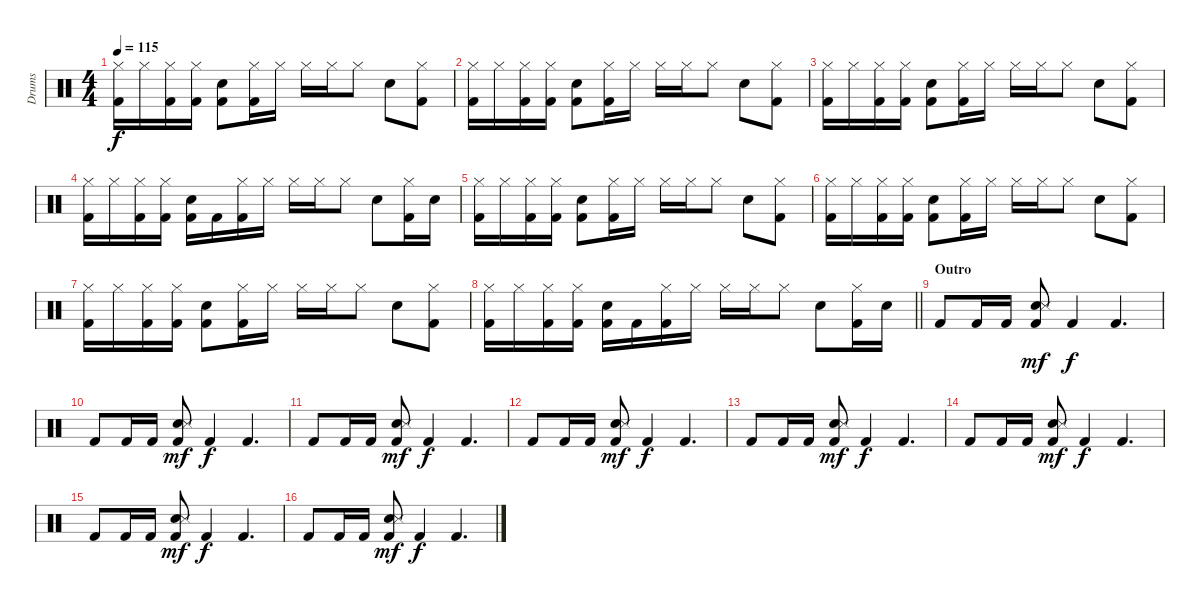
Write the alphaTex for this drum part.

\track ("Drums" "Drums") {instrument percussion}
\staff {score}
\articulation defaults
\ts (4 4)
\tempo 115
\clef neutral
\ks c
("Hi-Hat (closed)" "Kick (hit) 2").16{dy f} "Hi-Hat (closed)".16 ("Hi-Hat (closed)" "Kick (hit) 2").16 ("Hi-Hat (closed)" "Kick (hit) 2").16 ("Electric Snare (hit)" "Kick (hit) 2").8 ("Hi-Hat (closed)" "Kick (hit) 2").16 "Hi-Hat (closed)".16 "Hi-Hat (closed)".16 "Hi-Hat (closed)".16 "Hi-Hat (closed)".8 "Electric Snare (hit)".8 ("Hi-Hat (closed)" "Kick (hit) 2").8 |
("Hi-Hat (closed)" "Kick (hit) 2").16 "Hi-Hat (closed)".16 ("Hi-Hat (closed)" "Kick (hit) 2").16 ("Hi-Hat (closed)" "Kick (hit) 2").16 ("Electric Snare (hit)" "Kick (hit) 2").8 ("Hi-Hat (closed)" "Kick (hit) 2").16 "Hi-Hat (closed)".16 "Hi-Hat (closed)".16 "Hi-Hat (closed)".16 "Hi-Hat (closed)".8 "Electric Snare (hit)".8 ("Hi-Hat (closed)" "Kick (hit) 2").8 |
("Hi-Hat (closed)" "Kick (hit) 2").16 "Hi-Hat (closed)".16 ("Hi-Hat (closed)" "Kick (hit) 2").16 ("Hi-Hat (closed)" "Kick (hit) 2").16 ("Electric Snare (hit)" "Kick (hit) 2").8 ("Hi-Hat (closed)" "Kick (hit) 2").16 "Hi-Hat (closed)".16 "Hi-Hat (closed)".16 "Hi-Hat (closed)".16 "Hi-Hat (closed)".8 "Electric Snare (hit)".8 ("Hi-Hat (closed)" "Kick (hit) 2").8 |
("Hi-Hat (closed)" "Kick (hit) 2").16 "Hi-Hat (closed)".16 ("Hi-Hat (closed)" "Kick (hit) 2").16 ("Hi-Hat (closed)" "Kick (hit) 2").16 ("Electric Snare (hit)" "Kick (hit) 2").16 "Kick (hit) 2".16 ("Hi-Hat (closed)" "Kick (hit) 2").16 "Hi-Hat (closed)".16 "Hi-Hat (closed)".16 "Hi-Hat (closed)".16 "Hi-Hat (closed)".8 "Electric Snare (hit)".8 ("Hi-Hat (closed)" "Kick (hit) 2").16 "Electric Snare (hit)".16 |
("Hi-Hat (closed)" "Kick (hit) 2").16 "Hi-Hat (closed)".16 ("Hi-Hat (closed)" "Kick (hit) 2").16 ("Hi-Hat (closed)" "Kick (hit) 2").16 ("Electric Snare (hit)" "Kick (hit) 2").8 ("Hi-Hat (closed)" "Kick (hit) 2").16 "Hi-Hat (closed)".16 "Hi-Hat (closed)".16 "Hi-Hat (closed)".16 "Hi-Hat (closed)".8 "Electric Snare (hit)".8 ("Hi-Hat (closed)" "Kick (hit) 2").8 |
("Hi-Hat (closed)" "Kick (hit) 2").16 "Hi-Hat (closed)".16 ("Hi-Hat (closed)" "Kick (hit) 2").16 ("Hi-Hat (closed)" "Kick (hit) 2").16 ("Electric Snare (hit)" "Kick (hit) 2").8 ("Hi-Hat (closed)" "Kick (hit) 2").16 "Hi-Hat (closed)".16 "Hi-Hat (closed)".16 "Hi-Hat (closed)".16 "Hi-Hat (closed)".8 "Electric Snare (hit)".8 ("Hi-Hat (closed)" "Kick (hit) 2").8 |
("Hi-Hat (closed)" "Kick (hit) 2").16 "Hi-Hat (closed)".16 ("Hi-Hat (closed)" "Kick (hit) 2").16 ("Hi-Hat (closed)" "Kick (hit) 2").16 ("Electric Snare (hit)" "Kick (hit) 2").8 ("Hi-Hat (closed)" "Kick (hit) 2").16 "Hi-Hat (closed)".16 "Hi-Hat (closed)".16 "Hi-Hat (closed)".16 "Hi-Hat (closed)".8 "Electric Snare (hit)".8 ("Hi-Hat (closed)" "Kick (hit) 2").8 |
\barLineRight lightlight
("Hi-Hat (closed)" "Kick (hit) 2").16 "Hi-Hat (closed)".16 ("Hi-Hat (closed)" "Kick (hit) 2").16 ("Hi-Hat (closed)" "Kick (hit) 2").16 ("Electric Snare (hit)" "Kick (hit) 2").16 "Kick (hit) 2".16 ("Hi-Hat (closed)" "Kick (hit) 2").16 "Hi-Hat (closed)".16 "Hi-Hat (closed)".16 "Hi-Hat (closed)".16 "Hi-Hat (closed)".8 "Electric Snare (hit)".8 ("Hi-Hat (closed)" "Kick (hit) 2").16 "Electric Snare (hit)".16 |
\section ("" "Outro")
"Kick (hit) 2".8 "Kick (hit) 2".16 "Kick (hit) 2".16 ("Hand Clap (hit)" "Snare (side stick) 3" "Kick (hit) 2").8{dy mf} "Kick (hit) 2".4{dy f} "Kick (hit) 2".4{d} |
"Kick (hit) 2".8 "Kick (hit) 2".16 "Kick (hit) 2".16 ("Hand Clap (hit)" "Snare (side stick) 3" "Kick (hit) 2").8{dy mf} "Kick (hit) 2".4{dy f} "Kick (hit) 2".4{d} |
"Kick (hit) 2".8 "Kick (hit) 2".16 "Kick (hit) 2".16 ("Hand Clap (hit)" "Snare (side stick) 3" "Kick (hit) 2").8{dy mf} "Kick (hit) 2".4{dy f} "Kick (hit) 2".4{d} |
"Kick (hit) 2".8 "Kick (hit) 2".16 "Kick (hit) 2".16 ("Hand Clap (hit)" "Snare (side stick) 3" "Kick (hit) 2").8{dy mf} "Kick (hit) 2".4{dy f} "Kick (hit) 2".4{d} |
"Kick (hit) 2".8 "Kick (hit) 2".16 "Kick (hit) 2".16 ("Hand Clap (hit)" "Snare (side stick) 3" "Kick (hit) 2").8{dy mf} "Kick (hit) 2".4{dy f} "Kick (hit) 2".4{d} |
"Kick (hit) 2".8 "Kick (hit) 2".16 "Kick (hit) 2".16 ("Hand Clap (hit)" "Snare (side stick) 3" "Kick (hit) 2").8{dy mf} "Kick (hit) 2".4{dy f} "Kick (hit) 2".4{d} |
"Kick (hit) 2".8 "Kick (hit) 2".16 "Kick (hit) 2".16 ("Hand Clap (hit)" "Snare (side stick) 3" "Kick (hit) 2").8{dy mf} "Kick (hit) 2".4{dy f} "Kick (hit) 2".4{d} |
"Kick (hit) 2".8 "Kick (hit) 2".16 "Kick (hit) 2".16 ("Hand Clap (hit)" "Snare (side stick) 3" "Kick (hit) 2").8{dy mf} "Kick (hit) 2".4{dy f} "Kick (hit) 2".4{d}
